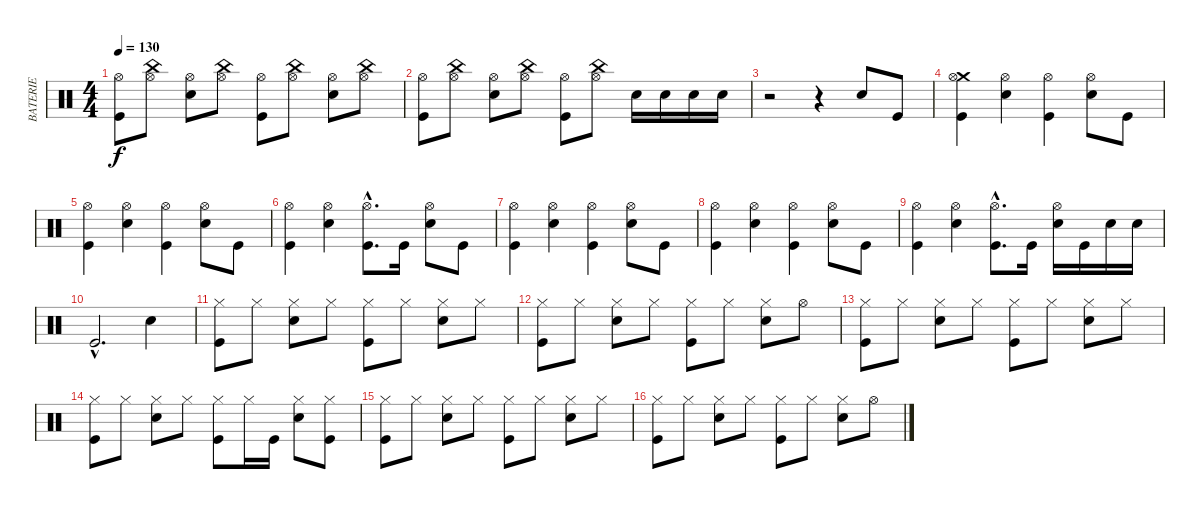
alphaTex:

\track ("BATERIE" "BATERIE") {instrument percussion}
\staff {score}
\articulation defaults
\ts (4 4)
\tempo 130
\clef neutral
\ks c
("Hi-Hat (open)" "Kick (hit)").8{dy f} ("Hi-Hat (open)" "China (hit)").8 ("Hi-Hat (open)" "Snare (hit) 2").8 ("Hi-Hat (open)" "China (hit)").8 ("Hi-Hat (open)" "Kick (hit)").8 ("Hi-Hat (open)" "China (hit)").8 ("Hi-Hat (open)" "Snare (hit) 2").8 ("Hi-Hat (open)" "China (hit)").8 |
("Hi-Hat (open)" "Kick (hit)").8 ("Hi-Hat (open)" "China (hit)").8 ("Hi-Hat (open)" "Snare (hit) 2").8 ("Hi-Hat (open)" "China (hit)").8 ("Hi-Hat (open)" "Kick (hit)").8 ("Hi-Hat (open)" "China (hit)").8 "Snare (hit) 2".16 "Snare (hit) 2".16 "Snare (hit) 2".16 "Snare (hit) 2".16 |
r.2 r.4 "Snare (hit) 2".8 "Kick (hit)".8 |
("Crash medium (hit)" "Hi-Hat (open)" "Kick (hit)").4 ("Hi-Hat (open)" "Snare (hit) 2").4 ("Hi-Hat (open)" "Kick (hit)").4 ("Hi-Hat (open)" "Snare (hit) 2").8 "Kick (hit)".8 |
("Hi-Hat (open)" "Kick (hit)").4 ("Hi-Hat (open)" "Snare (hit) 2").4 ("Hi-Hat (open)" "Kick (hit)").4 ("Hi-Hat (open)" "Snare (hit) 2").8 "Kick (hit)".8 |
("Hi-Hat (open)" "Kick (hit)").4 ("Hi-Hat (open)" "Snare (hit) 2").4 ("Hi-Hat (open)"{hac} "Kick (hit)"{hac}).8{d} "Kick (hit)".16 ("Hi-Hat (open)" "Snare (hit) 2").8 "Kick (hit)".8 |
("Hi-Hat (open)" "Kick (hit)").4 ("Hi-Hat (open)" "Snare (hit) 2").4 ("Hi-Hat (open)" "Kick (hit)").4 ("Hi-Hat (open)" "Snare (hit) 2").8 "Kick (hit)".8 |
("Hi-Hat (open)" "Kick (hit)").4 ("Hi-Hat (open)" "Snare (hit) 2").4 ("Hi-Hat (open)" "Kick (hit)").4 ("Hi-Hat (open)" "Snare (hit) 2").8 "Kick (hit)".8 |
("Hi-Hat (open)" "Kick (hit)").4 ("Hi-Hat (open)" "Snare (hit) 2").4 ("Hi-Hat (open)"{hac} "Kick (hit)"{hac}).8{d} "Kick (hit)".16 ("Hi-Hat (open)" "Snare (hit) 2").16 "Kick (hit)".16 "Snare (hit) 2".16 "Snare (hit) 2".16 |
"Kick (hit)"{hac}.2{d} "Snare (hit) 2".4 |
("Hi-Hat (closed)" "Kick (hit)").8 "Hi-Hat (closed)".8 ("Hi-Hat (closed)" "Snare (hit) 2").8 "Hi-Hat (closed)".8 ("Hi-Hat (closed)" "Kick (hit)").8 "Hi-Hat (closed)".8 ("Hi-Hat (closed)" "Snare (hit) 2").8 "Hi-Hat (closed)".8 |
("Hi-Hat (closed)" "Kick (hit)").8 "Hi-Hat (closed)".8 ("Hi-Hat (closed)" "Snare (hit) 2").8 "Hi-Hat (closed)".8 ("Hi-Hat (closed)" "Kick (hit)").8 "Hi-Hat (closed)".8 ("Hi-Hat (closed)" "Snare (hit) 2").8 "Hi-Hat (open)".8 |
("Hi-Hat (closed)" "Kick (hit)").8 "Hi-Hat (closed)".8 ("Hi-Hat (closed)" "Snare (hit) 2").8 "Hi-Hat (closed)".8 ("Hi-Hat (closed)" "Kick (hit)").8 "Hi-Hat (closed)".8 ("Hi-Hat (closed)" "Snare (hit) 2").8 "Hi-Hat (closed)".8 |
("Hi-Hat (closed)" "Kick (hit)").8 "Hi-Hat (closed)".8 ("Hi-Hat (closed)" "Snare (hit) 2").8 "Hi-Hat (closed)".8 ("Hi-Hat (closed)" "Kick (hit)").8 "Hi-Hat (closed)".16 "Kick (hit)".16 ("Hi-Hat (closed)" "Snare (hit) 2").8 ("Hi-Hat (closed)" "Kick (hit)").8 |
("Hi-Hat (closed)" "Kick (hit)").8 "Hi-Hat (closed)".8 ("Hi-Hat (closed)" "Snare (hit) 2").8 "Hi-Hat (closed)".8 ("Hi-Hat (closed)" "Kick (hit)").8 "Hi-Hat (closed)".8 ("Hi-Hat (closed)" "Snare (hit) 2").8 "Hi-Hat (closed)".8 |
("Hi-Hat (closed)" "Kick (hit)").8 "Hi-Hat (closed)".8 ("Hi-Hat (closed)" "Snare (hit) 2").8 "Hi-Hat (closed)".8 ("Hi-Hat (closed)" "Kick (hit)").8 "Hi-Hat (closed)".8 ("Hi-Hat (closed)" "Snare (hit) 2").8 "Hi-Hat (open)".8
